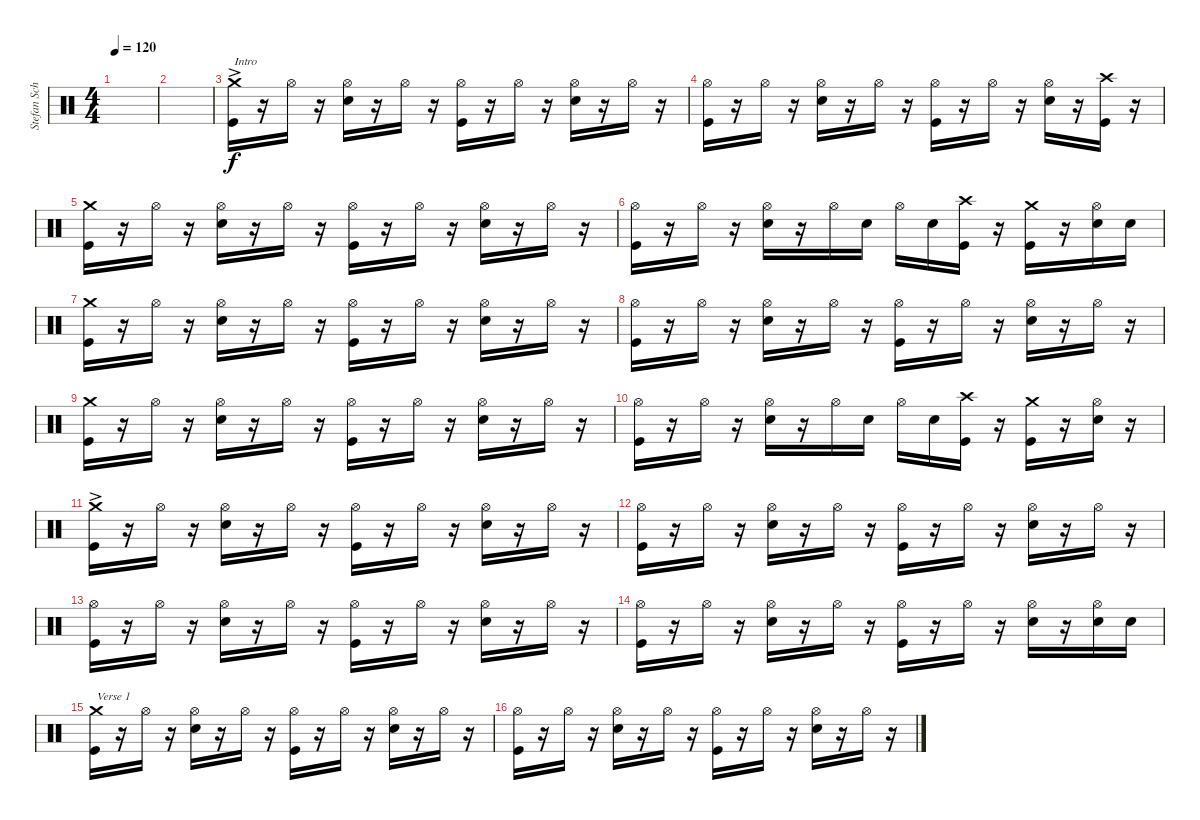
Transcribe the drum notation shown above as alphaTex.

\track ("Stefan Schwarzmann" "Stefan Sch") {instrument percussion}
\staff {score}
\articulation defaults
\ts (4 4)
\tempo 120
\clef neutral
\ks c
|
|
("Kick (hit)" "Crash medium (hit)"{ac}).16{txt "Intro"} r.16 "Hi-Hat (open)".16 r.16 ("Snare (hit) 2" "Hi-Hat (open)").16 r.16 "Hi-Hat (open)".16 r.16 ("Kick (hit)" "Hi-Hat (open)").16 r.16 "Hi-Hat (open)".16 r.16 ("Snare (hit) 2" "Hi-Hat (open)").16 r.16 "Hi-Hat (open)".16 r.16 |
("Kick (hit)" "Hi-Hat (open)").16 r.16 "Hi-Hat (open)".16 r.16 ("Snare (hit) 2" "Hi-Hat (open)").16 r.16 "Hi-Hat (open)".16 r.16 ("Kick (hit)" "Hi-Hat (open)").16 r.16 "Hi-Hat (open)".16 r.16 ("Snare (hit) 2" "Hi-Hat (open)").16 r.16 ("Crash high (hit)" "Kick (hit)").16 r.16 |
("Kick (hit)" "Crash medium (hit)").16 r.16 "Hi-Hat (open)".16 r.16 ("Snare (hit) 2" "Hi-Hat (open)").16 r.16 "Hi-Hat (open)".16 r.16 ("Kick (hit)" "Hi-Hat (open)").16 r.16 "Hi-Hat (open)".16 r.16 ("Snare (hit) 2" "Hi-Hat (open)").16 r.16 "Hi-Hat (open)".16 r.16 |
("Kick (hit)" "Hi-Hat (open)").16 r.16 "Hi-Hat (open)".16 r.16 ("Snare (hit) 2" "Hi-Hat (open)").16 r.16 "Hi-Hat (open)".16 "Snare (hit) 2".16 "Hi-Hat (open)".16 "Snare (hit) 2".16 ("Crash high (hit)" "Kick (hit)").16 r.16 ("Crash medium (hit)" "Kick (hit)").16 r.16 ("Hi-Hat (open)" "Snare (hit) 2").16 "Snare (hit) 2".16 |
("Kick (hit)" "Crash medium (hit)").16 r.16 "Hi-Hat (open)".16 r.16 ("Snare (hit) 2" "Hi-Hat (open)").16 r.16 "Hi-Hat (open)".16 r.16 ("Kick (hit)" "Hi-Hat (open)").16 r.16 "Hi-Hat (open)".16 r.16 ("Snare (hit) 2" "Hi-Hat (open)").16 r.16 "Hi-Hat (open)".16 r.16 |
("Kick (hit)" "Hi-Hat (open)").16 r.16 "Hi-Hat (open)".16 r.16 ("Snare (hit) 2" "Hi-Hat (open)").16 r.16 "Hi-Hat (open)".16 r.16 ("Kick (hit)" "Hi-Hat (open)").16 r.16 "Hi-Hat (open)".16 r.16 ("Snare (hit) 2" "Hi-Hat (open)").16 r.16 "Hi-Hat (open)".16 r.16 |
("Kick (hit)" "Crash medium (hit)").16 r.16 "Hi-Hat (open)".16 r.16 ("Snare (hit) 2" "Hi-Hat (open)").16 r.16 "Hi-Hat (open)".16 r.16 ("Kick (hit)" "Hi-Hat (open)").16 r.16 "Hi-Hat (open)".16 r.16 ("Snare (hit) 2" "Hi-Hat (open)").16 r.16 "Hi-Hat (open)".16 r.16 |
("Kick (hit)" "Hi-Hat (open)").16 r.16 "Hi-Hat (open)".16 r.16 ("Snare (hit) 2" "Hi-Hat (open)").16 r.16 "Hi-Hat (open)".16 "Snare (hit) 2".16 "Hi-Hat (open)".16 "Snare (hit) 2".16 ("Crash high (hit)" "Kick (hit)").16 r.16 ("Crash medium (hit)" "Kick (hit)").16 r.16 ("Hi-Hat (open)" "Snare (hit) 2").16 r.16 |
("Kick (hit)" "Crash medium (hit)"{ac}).16 r.16 "Hi-Hat (open)".16 r.16 ("Snare (hit) 2" "Hi-Hat (open)").16 r.16 "Hi-Hat (open)".16 r.16 ("Kick (hit)" "Hi-Hat (open)").16 r.16 "Hi-Hat (open)".16 r.16 ("Snare (hit) 2" "Hi-Hat (open)").16 r.16 "Hi-Hat (open)".16 r.16 |
("Kick (hit)" "Hi-Hat (open)").16 r.16 "Hi-Hat (open)".16 r.16 ("Snare (hit) 2" "Hi-Hat (open)").16 r.16 "Hi-Hat (open)".16 r.16 ("Kick (hit)" "Hi-Hat (open)").16 r.16 "Hi-Hat (open)".16 r.16 ("Snare (hit) 2" "Hi-Hat (open)").16 r.16 "Hi-Hat (open)".16 r.16 |
("Kick (hit)" "Hi-Hat (open)").16 r.16 "Hi-Hat (open)".16 r.16 ("Snare (hit) 2" "Hi-Hat (open)").16 r.16 "Hi-Hat (open)".16 r.16 ("Kick (hit)" "Hi-Hat (open)").16 r.16 "Hi-Hat (open)".16 r.16 ("Snare (hit) 2" "Hi-Hat (open)").16 r.16 "Hi-Hat (open)".16 r.16 |
("Kick (hit)" "Hi-Hat (open)").16 r.16 "Hi-Hat (open)".16 r.16 ("Snare (hit) 2" "Hi-Hat (open)").16 r.16 "Hi-Hat (open)".16 r.16 ("Kick (hit)" "Hi-Hat (open)").16 r.16 "Hi-Hat (open)".16 r.16 ("Snare (hit) 2" "Hi-Hat (open)").16 r.16 ("Hi-Hat (open)" "Snare (hit) 2").16 "Snare (hit) 2".16 |
("Kick (hit)" "Crash medium (hit)").16{txt "Verse 1"} r.16 "Hi-Hat (open)".16 r.16 ("Snare (hit) 2" "Hi-Hat (open)").16 r.16 "Hi-Hat (open)".16 r.16 ("Kick (hit)" "Hi-Hat (open)").16 r.16 "Hi-Hat (open)".16 r.16 ("Snare (hit) 2" "Hi-Hat (open)").16 r.16 "Hi-Hat (open)".16 r.16 |
("Kick (hit)" "Hi-Hat (open)").16 r.16 "Hi-Hat (open)".16 r.16 ("Snare (hit) 2" "Hi-Hat (open)").16 r.16 "Hi-Hat (open)".16 r.16 ("Kick (hit)" "Hi-Hat (open)").16 r.16 "Hi-Hat (open)".16 r.16 ("Snare (hit) 2" "Hi-Hat (open)").16 r.16 "Hi-Hat (open)".16 r.16
